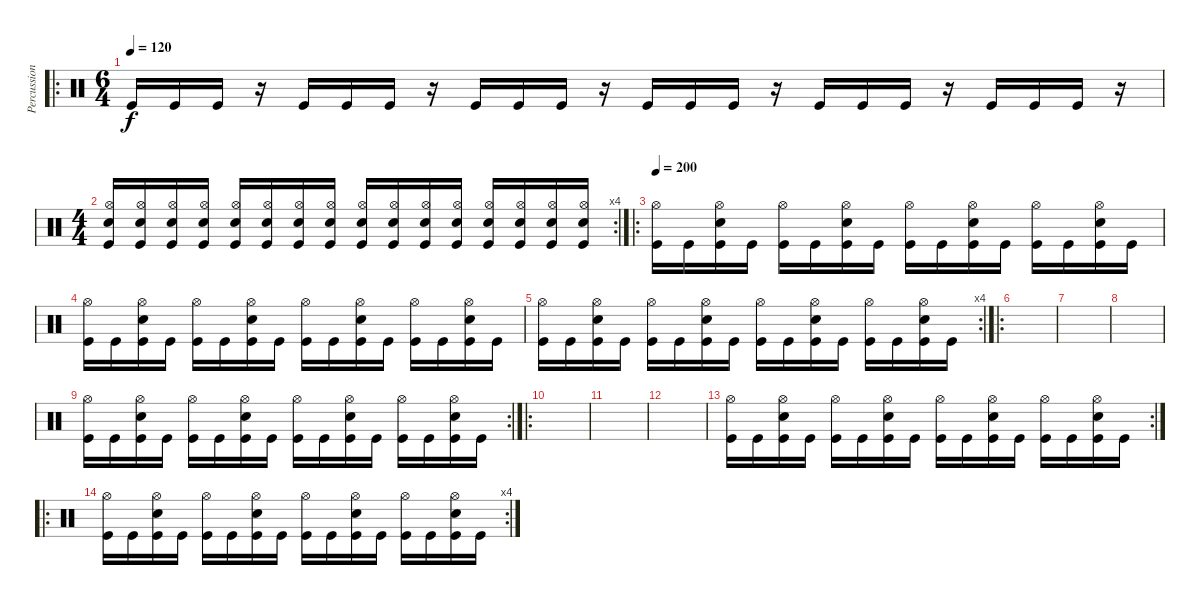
\track ("Percussion" "Percussion") {instrument percussion}
\staff {score}
\articulation defaults
\ro
\ts (6 4)
\tempo 120
\clef neutral
\ks c "Kick (hit)".16{dy f} "Kick (hit)".16 "Kick (hit)".16
r.16 "Kick (hit)".16 "Kick (hit)".16 "Kick (hit)".16 r.16 "Kick (hit)".16 "Kick (hit)".16 "Kick (hit)".16 r.16 "Kick (hit)".16 "Kick (hit)".16 "Kick (hit)".16 r.16 "Kick (hit)".16 "Kick (hit)".16 "Kick (hit)".16 r.16 "Kick (hit)".16 "Kick (hit)".16 "Kick (hit)".16 r.16 |
\rc 4
\ts (4 4)
("Hi-Hat (open)" "Snare (hit) 2" "Kick (hit)").16 ("Hi-Hat (open)" "Snare (hit) 2" "Kick (hit)").16 ("Hi-Hat (open)" "Snare (hit) 2" "Kick (hit)").16 ("Hi-Hat (open)" "Snare (hit) 2" "Kick (hit)").16 ("Hi-Hat (open)" "Snare (hit) 2" "Kick (hit)").16 ("Hi-Hat (open)" "Snare (hit) 2" "Kick (hit)").16 ("Hi-Hat (open)" "Snare (hit) 2" "Kick (hit)").16 ("Hi-Hat (open)" "Snare (hit) 2" "Kick (hit)").16 ("Hi-Hat (open)" "Snare (hit) 2" "Kick (hit)").16 ("Hi-Hat (open)" "Snare (hit) 2" "Kick (hit)").16 ("Hi-Hat (open)" "Snare (hit) 2" "Kick (hit)").16 ("Hi-Hat (open)" "Snare (hit) 2" "Kick (hit)").16 ("Hi-Hat (open)" "Snare (hit) 2" "Kick (hit)").16 ("Hi-Hat (open)" "Snare (hit) 2" "Kick (hit)").16 ("Hi-Hat (open)" "Snare (hit) 2" "Kick (hit)").16 ("Hi-Hat (open)" "Snare (hit) 2" "Kick (hit)").16 |
\ro
\tempo 200
("Hi-Hat (open)" "Kick (hit)").16 "Kick (hit)".16 ("Hi-Hat (open)" "Snare (hit) 2" "Kick (hit)").16 "Kick (hit)".16 ("Hi-Hat (open)" "Kick (hit)").16 "Kick (hit)".16 ("Hi-Hat (open)" "Snare (hit) 2" "Kick (hit)").16 "Kick (hit)".16 ("Hi-Hat (open)" "Kick (hit)").16 "Kick (hit)".16 ("Hi-Hat (open)" "Snare (hit) 2" "Kick (hit)").16 "Kick (hit)".16 ("Hi-Hat (open)" "Kick (hit)").16 "Kick (hit)".16 ("Hi-Hat (open)" "Snare (hit) 2" "Kick (hit)").16 "Kick (hit)".16 |
("Hi-Hat (open)" "Kick (hit)").16 "Kick (hit)".16 ("Hi-Hat (open)" "Snare (hit) 2" "Kick (hit)").16 "Kick (hit)".16 ("Hi-Hat (open)" "Kick (hit)").16 "Kick (hit)".16 ("Hi-Hat (open)" "Snare (hit) 2" "Kick (hit)").16 "Kick (hit)".16 ("Hi-Hat (open)" "Kick (hit)").16 "Kick (hit)".16 ("Hi-Hat (open)" "Snare (hit) 2" "Kick (hit)").16 "Kick (hit)".16 ("Hi-Hat (open)" "Kick (hit)").16 "Kick (hit)".16 ("Hi-Hat (open)" "Snare (hit) 2" "Kick (hit)").16 "Kick (hit)".16 |
\rc 4
("Hi-Hat (open)" "Kick (hit)").16 "Kick (hit)".16 ("Hi-Hat (open)" "Snare (hit) 2" "Kick (hit)").16 "Kick (hit)".16 ("Hi-Hat (open)" "Kick (hit)").16 "Kick (hit)".16 ("Hi-Hat (open)" "Snare (hit) 2" "Kick (hit)").16 "Kick (hit)".16 ("Hi-Hat (open)" "Kick (hit)").16 "Kick (hit)".16 ("Hi-Hat (open)" "Snare (hit) 2" "Kick (hit)").16 "Kick (hit)".16 ("Hi-Hat (open)" "Kick (hit)").16 "Kick (hit)".16 ("Hi-Hat (open)" "Snare (hit) 2" "Kick (hit)").16 "Kick (hit)".16 |
\ro
|
|
|
\rc 2
("Hi-Hat (open)" "Kick (hit)").16 "Kick (hit)".16 ("Hi-Hat (open)" "Snare (hit) 2" "Kick (hit)").16 "Kick (hit)".16 ("Hi-Hat (open)" "Kick (hit)").16 "Kick (hit)".16 ("Hi-Hat (open)" "Snare (hit) 2" "Kick (hit)").16 "Kick (hit)".16 ("Hi-Hat (open)" "Kick (hit)").16 "Kick (hit)".16 ("Hi-Hat (open)" "Snare (hit) 2" "Kick (hit)").16 "Kick (hit)".16 ("Hi-Hat (open)" "Kick (hit)").16 "Kick (hit)".16 ("Hi-Hat (open)" "Snare (hit) 2" "Kick (hit)").16 "Kick (hit)".16 |
\ro
|
|
|
\rc 2
("Hi-Hat (open)" "Kick (hit)").16 "Kick (hit)".16 ("Hi-Hat (open)" "Snare (hit) 2" "Kick (hit)").16 "Kick (hit)".16 ("Hi-Hat (open)" "Kick (hit)").16 "Kick (hit)".16 ("Hi-Hat (open)" "Snare (hit) 2" "Kick (hit)").16 "Kick (hit)".16 ("Hi-Hat (open)" "Kick (hit)").16 "Kick (hit)".16 ("Hi-Hat (open)" "Snare (hit) 2" "Kick (hit)").16 "Kick (hit)".16 ("Hi-Hat (open)" "Kick (hit)").16 "Kick (hit)".16 ("Hi-Hat (open)" "Snare (hit) 2" "Kick (hit)").16 "Kick (hit)".16 |
\ro
\rc 4
("Hi-Hat (open)" "Kick (hit)").16 "Kick (hit)".16 ("Hi-Hat (open)" "Snare (hit) 2" "Kick (hit)").16 "Kick (hit)".16 ("Hi-Hat (open)" "Kick (hit)").16 "Kick (hit)".16 ("Hi-Hat (open)" "Snare (hit) 2" "Kick (hit)").16 "Kick (hit)".16 ("Hi-Hat (open)" "Kick (hit)").16 "Kick (hit)".16 ("Hi-Hat (open)" "Snare (hit) 2" "Kick (hit)").16 "Kick (hit)".16 ("Hi-Hat (open)" "Kick (hit)").16 "Kick (hit)".16 ("Hi-Hat (open)" "Snare (hit) 2" "Kick (hit)").16 "Kick (hit)".16
